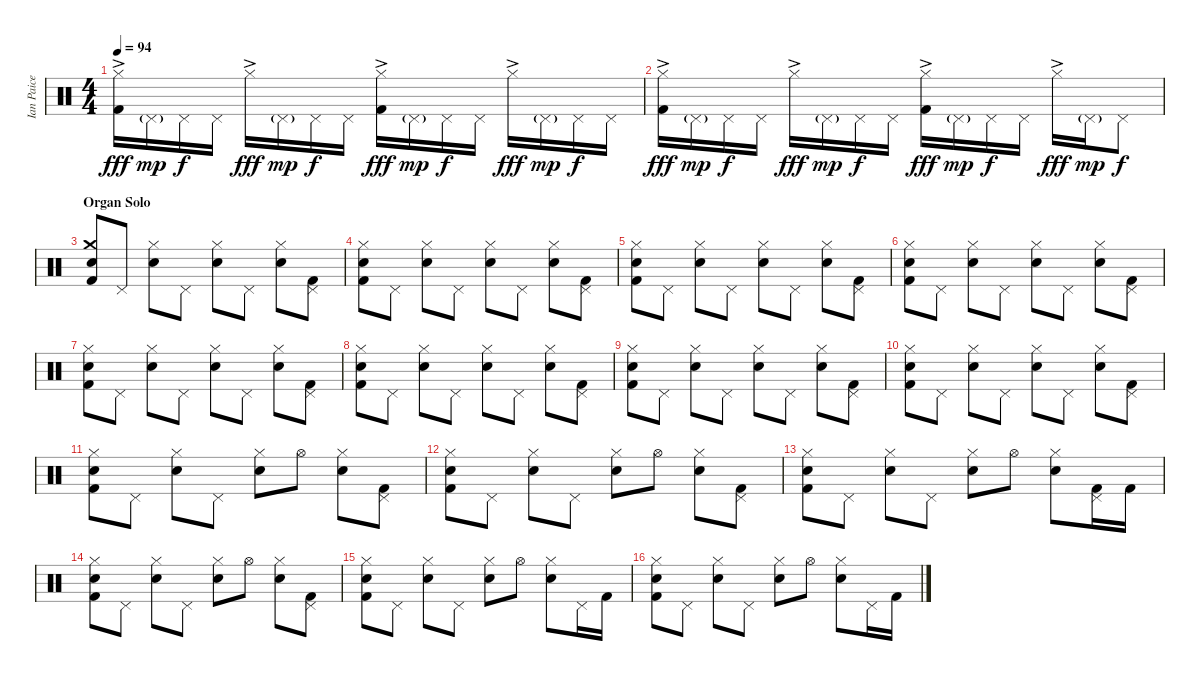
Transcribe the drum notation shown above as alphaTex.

\track ("Ian Paice (Drums)" "Ian Paice ") {instrument percussion}
\staff {score}
\articulation defaults
\ts (4 4)
\tempo 94
\clef neutral
\ks c
("Hi-Hat (closed)"{ac} "Kick (hit) 2").16{dy fff} "Pedal Hi-Hat (hit)"{g}.16{dy mp} "Pedal Hi-Hat (hit)".16{dy f} "Pedal Hi-Hat (hit)".16 "Hi-Hat (closed)"{ac}.16{dy fff} "Pedal Hi-Hat (hit)"{g}.16{dy mp} "Pedal Hi-Hat (hit)".16{dy f} "Pedal Hi-Hat (hit)".16 ("Hi-Hat (closed)"{ac} "Kick (hit) 2").16{dy fff} "Pedal Hi-Hat (hit)"{g}.16{dy mp} "Pedal Hi-Hat (hit)".16{dy f} "Pedal Hi-Hat (hit)".16 "Hi-Hat (closed)"{ac}.16{dy fff} "Pedal Hi-Hat (hit)"{g}.16{dy mp} "Pedal Hi-Hat (hit)".16{dy f} "Pedal Hi-Hat (hit)".16 |
("Hi-Hat (closed)"{ac} "Kick (hit) 2").16{dy fff} "Pedal Hi-Hat (hit)"{g}.16{dy mp} "Pedal Hi-Hat (hit)".16{dy f} "Pedal Hi-Hat (hit)".16 "Hi-Hat (closed)"{ac}.16{dy fff} "Pedal Hi-Hat (hit)"{g}.16{dy mp} "Pedal Hi-Hat (hit)".16{dy f} "Pedal Hi-Hat (hit)".16 ("Hi-Hat (closed)"{ac} "Kick (hit) 2").16{dy fff} "Pedal Hi-Hat (hit)"{g}.16{dy mp} "Pedal Hi-Hat (hit)".16{dy f} "Pedal Hi-Hat (hit)".16 "Hi-Hat (closed)"{ac}.16{dy fff} "Pedal Hi-Hat (hit)"{g}.16{dy mp} "Pedal Hi-Hat (hit)".8{dy f} |
\section ("" "Organ Solo")
("Crash medium (hit)" "Electric Snare (hit)" "Kick (hit) 2").8 "Pedal Hi-Hat (hit)".8 ("Hi-Hat (closed)" "Electric Snare (hit)").8 "Pedal Hi-Hat (hit)".8 ("Hi-Hat (closed)" "Electric Snare (hit)").8 "Pedal Hi-Hat (hit)".8 ("Hi-Hat (closed)" "Electric Snare (hit)").8 ("Pedal Hi-Hat (hit)" "Kick (hit) 2").8 |
("Hi-Hat (closed)" "Electric Snare (hit)" "Kick (hit) 2").8 "Pedal Hi-Hat (hit)".8 ("Hi-Hat (closed)" "Electric Snare (hit)").8 "Pedal Hi-Hat (hit)".8 ("Hi-Hat (closed)" "Electric Snare (hit)").8 "Pedal Hi-Hat (hit)".8 ("Hi-Hat (closed)" "Electric Snare (hit)").8 ("Pedal Hi-Hat (hit)" "Kick (hit) 2").8 |
("Hi-Hat (closed)" "Electric Snare (hit)" "Kick (hit) 2").8 "Pedal Hi-Hat (hit)".8 ("Hi-Hat (closed)" "Electric Snare (hit)").8 "Pedal Hi-Hat (hit)".8 ("Hi-Hat (closed)" "Electric Snare (hit)").8 "Pedal Hi-Hat (hit)".8 ("Hi-Hat (closed)" "Electric Snare (hit)").8 ("Pedal Hi-Hat (hit)" "Kick (hit) 2").8 |
("Hi-Hat (closed)" "Electric Snare (hit)" "Kick (hit) 2").8 "Pedal Hi-Hat (hit)".8 ("Hi-Hat (closed)" "Electric Snare (hit)").8 "Pedal Hi-Hat (hit)".8 ("Hi-Hat (closed)" "Electric Snare (hit)").8 "Pedal Hi-Hat (hit)".8 ("Hi-Hat (closed)" "Electric Snare (hit)").8 ("Pedal Hi-Hat (hit)" "Kick (hit) 2").8 |
("Hi-Hat (closed)" "Electric Snare (hit)" "Kick (hit) 2").8 "Pedal Hi-Hat (hit)".8 ("Hi-Hat (closed)" "Electric Snare (hit)").8 "Pedal Hi-Hat (hit)".8 ("Hi-Hat (closed)" "Electric Snare (hit)").8 "Pedal Hi-Hat (hit)".8 ("Hi-Hat (closed)" "Electric Snare (hit)").8 ("Pedal Hi-Hat (hit)" "Kick (hit) 2").8 |
("Hi-Hat (closed)" "Electric Snare (hit)" "Kick (hit) 2").8 "Pedal Hi-Hat (hit)".8 ("Hi-Hat (closed)" "Electric Snare (hit)").8 "Pedal Hi-Hat (hit)".8 ("Hi-Hat (closed)" "Electric Snare (hit)").8 "Pedal Hi-Hat (hit)".8 ("Hi-Hat (closed)" "Electric Snare (hit)").8 ("Pedal Hi-Hat (hit)" "Kick (hit) 2").8 |
("Hi-Hat (closed)" "Electric Snare (hit)" "Kick (hit) 2").8 "Pedal Hi-Hat (hit)".8 ("Hi-Hat (closed)" "Electric Snare (hit)").8 "Pedal Hi-Hat (hit)".8 ("Hi-Hat (closed)" "Electric Snare (hit)").8 "Pedal Hi-Hat (hit)".8 ("Hi-Hat (closed)" "Electric Snare (hit)").8 ("Pedal Hi-Hat (hit)" "Kick (hit) 2").8 |
("Hi-Hat (closed)" "Electric Snare (hit)" "Kick (hit) 2").8 "Pedal Hi-Hat (hit)".8 ("Hi-Hat (closed)" "Electric Snare (hit)").8 "Pedal Hi-Hat (hit)".8 ("Hi-Hat (closed)" "Electric Snare (hit)").8 "Pedal Hi-Hat (hit)".8 ("Hi-Hat (closed)" "Electric Snare (hit)").8 ("Pedal Hi-Hat (hit)" "Kick (hit) 2").8 |
("Hi-Hat (closed)" "Electric Snare (hit)" "Kick (hit) 2").8 "Pedal Hi-Hat (hit)".8 ("Hi-Hat (closed)" "Electric Snare (hit)").8 "Pedal Hi-Hat (hit)".8 ("Hi-Hat (closed)" "Electric Snare (hit)").8 "Hi-Hat (open)".8 ("Hi-Hat (closed)" "Electric Snare (hit)").8 ("Pedal Hi-Hat (hit)" "Kick (hit) 2").8 |
("Hi-Hat (closed)" "Electric Snare (hit)" "Kick (hit) 2").8 "Pedal Hi-Hat (hit)".8 ("Hi-Hat (closed)" "Electric Snare (hit)").8 "Pedal Hi-Hat (hit)".8 ("Hi-Hat (closed)" "Electric Snare (hit)").8 "Hi-Hat (open)".8 ("Hi-Hat (closed)" "Electric Snare (hit)").8 ("Pedal Hi-Hat (hit)" "Kick (hit) 2").8 |
("Hi-Hat (closed)" "Electric Snare (hit)" "Kick (hit) 2").8 "Pedal Hi-Hat (hit)".8 ("Hi-Hat (closed)" "Electric Snare (hit)").8 "Pedal Hi-Hat (hit)".8 ("Hi-Hat (closed)" "Electric Snare (hit)").8 "Hi-Hat (open)".8 ("Hi-Hat (closed)" "Electric Snare (hit)").8 ("Pedal Hi-Hat (hit)" "Kick (hit) 2").16 "Kick (hit) 2".16 |
("Hi-Hat (closed)" "Electric Snare (hit)" "Kick (hit) 2").8 "Pedal Hi-Hat (hit)".8 ("Hi-Hat (closed)" "Electric Snare (hit)").8 "Pedal Hi-Hat (hit)".8 ("Hi-Hat (closed)" "Electric Snare (hit)").8 "Hi-Hat (open)".8 ("Hi-Hat (closed)" "Electric Snare (hit)").8 ("Pedal Hi-Hat (hit)" "Kick (hit) 2").8 |
("Hi-Hat (closed)" "Electric Snare (hit)" "Kick (hit) 2").8 "Pedal Hi-Hat (hit)".8 ("Hi-Hat (closed)" "Electric Snare (hit)").8 "Pedal Hi-Hat (hit)".8 ("Hi-Hat (closed)" "Electric Snare (hit)").8 "Hi-Hat (open)".8 ("Hi-Hat (closed)" "Electric Snare (hit)").8 "Pedal Hi-Hat (hit)".16 "Kick (hit) 2".16 |
("Hi-Hat (closed)" "Electric Snare (hit)" "Kick (hit) 2").8 "Pedal Hi-Hat (hit)".8 ("Hi-Hat (closed)" "Electric Snare (hit)").8 "Pedal Hi-Hat (hit)".8 ("Hi-Hat (closed)" "Electric Snare (hit)").8 "Hi-Hat (open)".8 ("Hi-Hat (closed)" "Electric Snare (hit)").8 "Pedal Hi-Hat (hit)".16 "Kick (hit) 2".16
